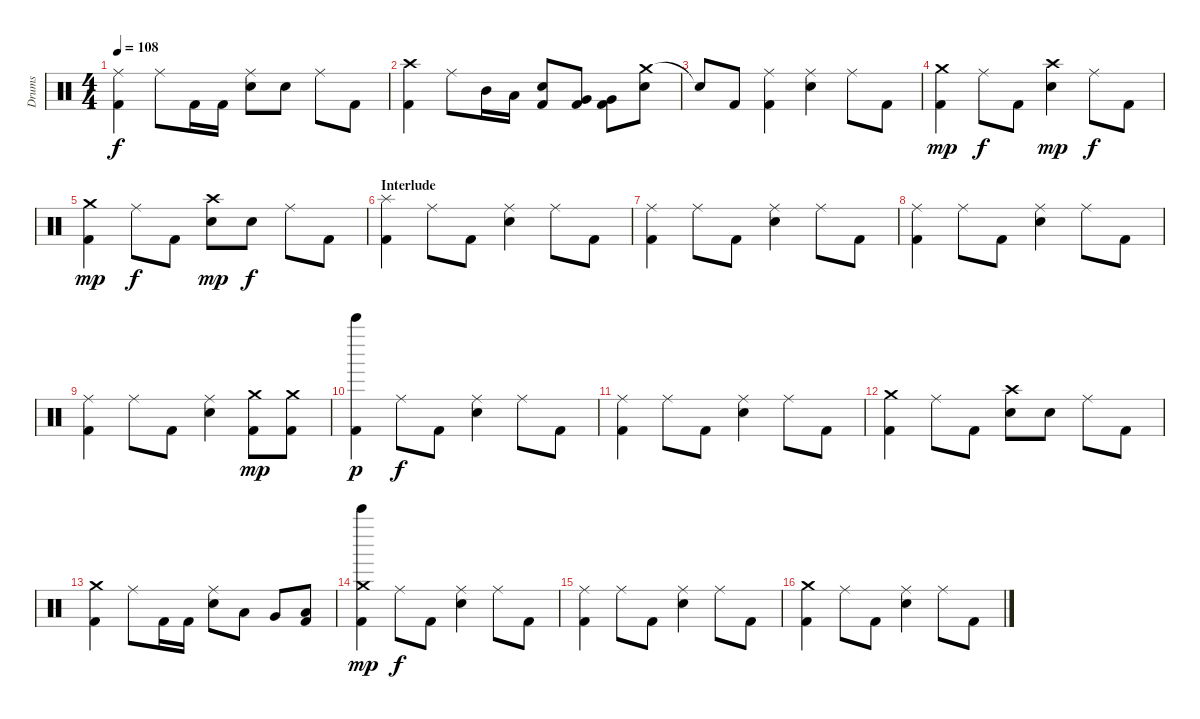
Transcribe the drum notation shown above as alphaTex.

\track ("Drums" "Drums") {instrument percussion}
\staff {score}
\articulation defaults
\ts (4 4)
\tempo 108
\clef neutral
\ks c
("Ride (middle)" "Kick (hit) 2").4{dy f} "Ride (middle)".8 "Kick (hit) 2".16 "Kick (hit) 2".16 ("Ride (middle)" "Electric Snare (hit)").8 "Electric Snare (hit)".8 "Ride (middle)".8 "Kick (hit) 2".8 |
("Crash high (hit)" "Kick (hit) 2").4 "Ride (middle)".8 "Mid Tom (hit)".16 "Low Tom (hit)".16 ("Electric Snare (hit)" "Kick (hit) 2").8 ("Very Low Tom (hit)" "Kick (hit) 2").8 ("Very Low Tom (hit)" "Kick (hit) 2").8 ("Crash medium (hit)" "Electric Snare (hit)").8 |
"Snare (hit)"{t}.8 "Kick (hit) 2".8 ("Ride (middle)" "Kick (hit) 2").4 ("Ride (middle)" "Electric Snare (hit)").4 "Ride (middle)".8 "Kick (hit) 2".8 |
("Crash medium (hit)" "Kick (hit) 2").4{dy mp} "Ride (middle)".8{dy f} "Kick (hit) 2".8 ("Crash high (hit)" "Electric Snare (hit)").4{dy mp} "Ride (middle)".8{dy f} "Kick (hit) 2".8 |
("Crash medium (hit)" "Kick (hit) 2").4{dy mp} "Ride (middle)".8{dy f} "Kick (hit) 2".8 ("Crash high (hit)" "Electric Snare (hit)").8{dy mp} "Electric Snare (hit)".8{dy f} "Ride (middle)".8 "Kick (hit) 2".8 |
\section ("" "Interlude")
("Splash (hit)" "Kick (hit) 2").4 "Ride (middle)".8 "Kick (hit) 2".8 ("Ride (middle)" "Electric Snare (hit)").4 "Ride (middle)".8 "Kick (hit) 2".8 |
("Ride (middle)" "Kick (hit) 2").4 "Ride (middle)".8 "Kick (hit) 2".8 ("Ride (middle)" "Electric Snare (hit)").4 "Ride (middle)".8 "Kick (hit) 2".8 |
("Ride (middle)" "Kick (hit) 2").4 "Ride (middle)".8 "Kick (hit) 2".8 ("Ride (middle)" "Electric Snare (hit)").4 "Ride (middle)".8 "Kick (hit) 2".8 |
("Ride (middle)" "Kick (hit) 2").4 "Ride (middle)".8 "Kick (hit) 2".8 ("Ride (middle)" "Electric Snare (hit)").4 ("Crash medium (hit)" "Kick (hit) 2").8{dy mp} ("Crash medium (hit)" "Kick (hit) 2").8 |
("Bell Tree (hit)" "Kick (hit) 2").4{dy p} "Ride (middle)".8{dy f} "Kick (hit) 2".8 ("Ride (middle)" "Electric Snare (hit)").4 "Ride (middle)".8 "Kick (hit) 2".8 |
("Ride (middle)" "Kick (hit) 2").4 "Ride (middle)".8 "Kick (hit) 2".8 ("Ride (middle)" "Electric Snare (hit)").4 "Ride (middle)".8 "Kick (hit) 2".8 |
("Crash medium (hit)" "Kick (hit) 2").4 "Ride (middle)".8 "Kick (hit) 2".8 ("Crash high (hit)" "Electric Snare (hit)").8 "Electric Snare (hit)".8 "Ride (middle)".8 "Kick (hit) 2".8 |
("Crash medium (hit)" "Kick (hit) 2").4 "Ride (middle)".8 "Kick (hit) 2".16 "Kick (hit) 2".16 ("Ride (middle)" "Electric Snare (hit)").8 "Low Tom (hit)".8 "Very Low Tom (hit)".8 ("Low Floor Tom (hit)" "Kick (hit) 2").8 |
("Crash medium (hit)" "Bell Tree (hit)" "Kick (hit) 2").4{dy mp} "Ride (middle)".8{dy f} "Kick (hit) 2".8 ("Ride (middle)" "Electric Snare (hit)").4 "Ride (middle)".8 "Kick (hit) 2".8 |
("Ride (middle)" "Kick (hit) 2").4 "Ride (middle)".8 "Kick (hit) 2".8 ("Ride (middle)" "Electric Snare (hit)").4 "Ride (middle)".8 "Kick (hit) 2".8 |
("Crash medium (hit)" "Kick (hit) 2").4 "Ride (middle)".8 "Kick (hit) 2".8 ("Ride (middle)" "Electric Snare (hit)").4 "Ride (middle)".8 "Kick (hit) 2".8
